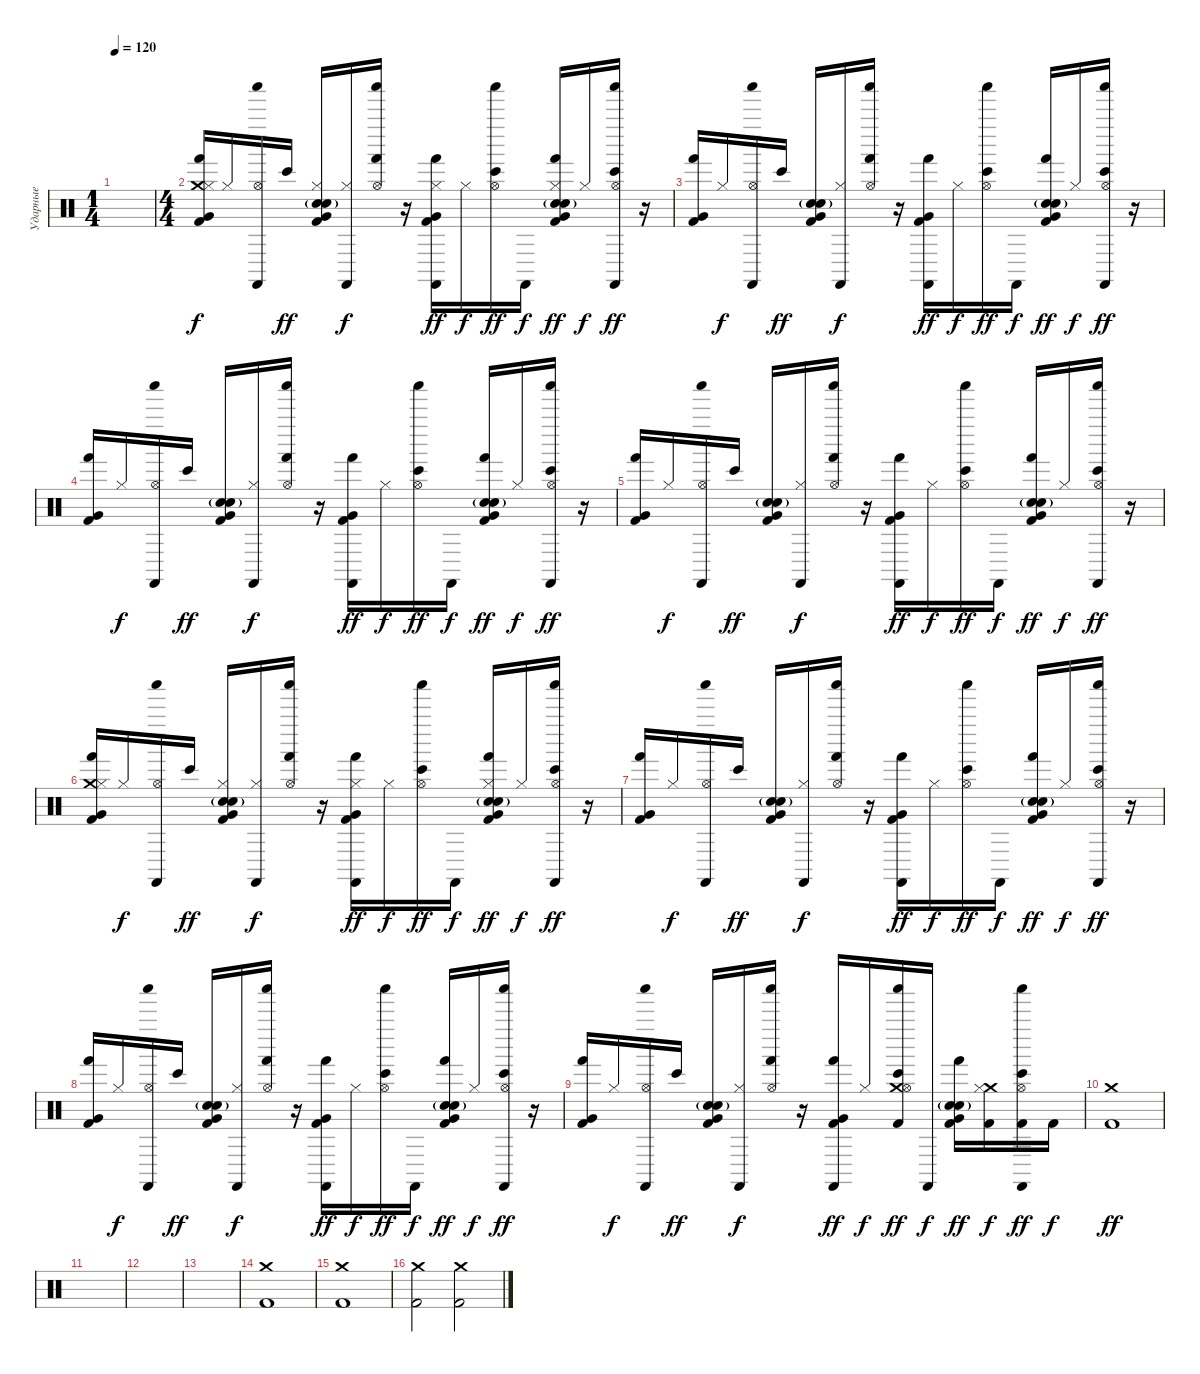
\track ("Ударные" "Ударные") {instrument percussion}
\staff {score}
\articulation defaults
\ts (1 4)
\tempo 120
\clef neutral
\ks c
|
\ts (4 4)
("Kick (hit) 2" "Crash medium (hit)" "Hi-Hat (closed)" "Very Low Tom (hit)" "Hand (hit)").16 "Hi-Hat (closed)".16{dy f} ("Castanets (hit)" "Shaker (hit)" "Hi-Hat (open)").16 "Bongo High (hit)".16{dy ff} ("Kick (hit) 2" "Hand Clap (hit)"{g} "Snare (hit) 2" "Hi-Hat (closed)" "Very Low Tom (hit)").16 ("Castanets (hit)" "Hi-Hat (closed)").16{dy f} ("Shaker (hit)" "Hi-Hat (open)" "Hand (hit)").16 r.16 ("Kick (hit) 2" "Castanets (hit)" "Hi-Hat (closed)" "Very Low Tom (hit)" "Hand (hit)").16{dy ff} "Hi-Hat (closed)".16{dy f} ("Shaker (hit)" "Hi-Hat (open)" "Bongo High (hit)").16{dy ff} "Castanets (hit)".16{dy f} ("Kick (hit) 2" "Hand Clap (hit)"{g} "Snare (hit) 2" "Hi-Hat (closed)" "Very Low Tom (hit)" "Hand (hit)").16{dy ff} "Hi-Hat (closed)".16{dy f} ("Castanets (hit)" "Shaker (hit)" "Hi-Hat (open)" "Bongo High (hit)").16{dy ff} r.16 |
("Kick (hit) 2" "Very Low Tom (hit)" "Hand (hit)").16 "Hi-Hat (closed)".16{dy f} ("Castanets (hit)" "Shaker (hit)" "Hi-Hat (open)").16 "Bongo High (hit)".16{dy ff} ("Kick (hit) 2" "Hand Clap (hit)"{g} "Snare (hit) 2" "Very Low Tom (hit)").16 ("Castanets (hit)" "Hi-Hat (closed)").16{dy f} ("Shaker (hit)" "Hi-Hat (open)" "Hand (hit)").16 r.16 ("Kick (hit) 2" "Castanets (hit)" "Very Low Tom (hit)" "Hand (hit)").16{dy ff} "Hi-Hat (closed)".16{dy f} ("Shaker (hit)" "Hi-Hat (open)" "Bongo High (hit)").16{dy ff} "Castanets (hit)".16{dy f} ("Kick (hit) 2" "Hand Clap (hit)"{g} "Snare (hit) 2" "Very Low Tom (hit)" "Hand (hit)").16{dy ff} "Hi-Hat (closed)".16{dy f} ("Castanets (hit)" "Shaker (hit)" "Hi-Hat (open)" "Bongo High (hit)").16{dy ff} r.16 |
("Kick (hit) 2" "Very Low Tom (hit)" "Hand (hit)").16 "Hi-Hat (closed)".16{dy f} ("Castanets (hit)" "Shaker (hit)" "Hi-Hat (open)").16 "Bongo High (hit)".16{dy ff} ("Kick (hit) 2" "Hand Clap (hit)"{g} "Snare (hit) 2" "Very Low Tom (hit)").16 ("Castanets (hit)" "Hi-Hat (closed)").16{dy f} ("Shaker (hit)" "Hi-Hat (open)" "Hand (hit)").16 r.16 ("Kick (hit) 2" "Castanets (hit)" "Very Low Tom (hit)" "Hand (hit)").16{dy ff} "Hi-Hat (closed)".16{dy f} ("Shaker (hit)" "Hi-Hat (open)" "Bongo High (hit)").16{dy ff} "Castanets (hit)".16{dy f} ("Kick (hit) 2" "Hand Clap (hit)"{g} "Snare (hit) 2" "Very Low Tom (hit)" "Hand (hit)").16{dy ff} "Hi-Hat (closed)".16{dy f} ("Castanets (hit)" "Shaker (hit)" "Hi-Hat (open)" "Bongo High (hit)").16{dy ff} r.16 |
("Kick (hit) 2" "Very Low Tom (hit)" "Hand (hit)").16 "Hi-Hat (closed)".16{dy f} ("Castanets (hit)" "Shaker (hit)" "Hi-Hat (open)").16 "Bongo High (hit)".16{dy ff} ("Kick (hit) 2" "Hand Clap (hit)"{g} "Snare (hit) 2" "Very Low Tom (hit)").16 ("Castanets (hit)" "Hi-Hat (closed)").16{dy f} ("Shaker (hit)" "Hi-Hat (open)" "Hand (hit)").16 r.16 ("Kick (hit) 2" "Castanets (hit)" "Very Low Tom (hit)" "Hand (hit)").16{dy ff} "Hi-Hat (closed)".16{dy f} ("Shaker (hit)" "Hi-Hat (open)" "Bongo High (hit)").16{dy ff} "Castanets (hit)".16{dy f} ("Kick (hit) 2" "Hand Clap (hit)"{g} "Snare (hit) 2" "Very Low Tom (hit)" "Hand (hit)").16{dy ff} "Hi-Hat (closed)".16{dy f} ("Castanets (hit)" "Shaker (hit)" "Hi-Hat (open)" "Bongo High (hit)").16{dy ff} r.16 |
("Kick (hit) 2" "Crash medium (hit)" "Hi-Hat (closed)" "Very Low Tom (hit)" "Hand (hit)").16 "Hi-Hat (closed)".16{dy f} ("Castanets (hit)" "Shaker (hit)" "Hi-Hat (open)").16 "Bongo High (hit)".16{dy ff} ("Kick (hit) 2" "Hand Clap (hit)"{g} "Snare (hit) 2" "Hi-Hat (closed)" "Very Low Tom (hit)").16 ("Castanets (hit)" "Hi-Hat (closed)").16{dy f} ("Shaker (hit)" "Hi-Hat (open)" "Hand (hit)").16 r.16 ("Kick (hit) 2" "Castanets (hit)" "Hi-Hat (closed)" "Very Low Tom (hit)" "Hand (hit)").16{dy ff} "Hi-Hat (closed)".16{dy f} ("Shaker (hit)" "Hi-Hat (open)" "Bongo High (hit)").16{dy ff} "Castanets (hit)".16{dy f} ("Kick (hit) 2" "Hand Clap (hit)"{g} "Snare (hit) 2" "Hi-Hat (closed)" "Very Low Tom (hit)" "Hand (hit)").16{dy ff} "Hi-Hat (closed)".16{dy f} ("Castanets (hit)" "Shaker (hit)" "Hi-Hat (open)" "Bongo High (hit)").16{dy ff} r.16 |
("Kick (hit) 2" "Very Low Tom (hit)" "Hand (hit)").16 "Hi-Hat (closed)".16{dy f} ("Castanets (hit)" "Shaker (hit)" "Hi-Hat (open)").16 "Bongo High (hit)".16{dy ff} ("Kick (hit) 2" "Hand Clap (hit)"{g} "Snare (hit) 2" "Very Low Tom (hit)").16 ("Castanets (hit)" "Hi-Hat (closed)").16{dy f} ("Shaker (hit)" "Hi-Hat (open)" "Hand (hit)").16 r.16 ("Kick (hit) 2" "Castanets (hit)" "Very Low Tom (hit)" "Hand (hit)").16{dy ff} "Hi-Hat (closed)".16{dy f} ("Shaker (hit)" "Hi-Hat (open)" "Bongo High (hit)").16{dy ff} "Castanets (hit)".16{dy f} ("Kick (hit) 2" "Hand Clap (hit)"{g} "Snare (hit) 2" "Very Low Tom (hit)" "Hand (hit)").16{dy ff} "Hi-Hat (closed)".16{dy f} ("Castanets (hit)" "Shaker (hit)" "Hi-Hat (open)" "Bongo High (hit)").16{dy ff} r.16 |
("Kick (hit) 2" "Very Low Tom (hit)" "Hand (hit)").16 "Hi-Hat (closed)".16{dy f} ("Castanets (hit)" "Shaker (hit)" "Hi-Hat (open)").16 "Bongo High (hit)".16{dy ff} ("Kick (hit) 2" "Hand Clap (hit)"{g} "Snare (hit) 2" "Very Low Tom (hit)").16 ("Castanets (hit)" "Hi-Hat (closed)").16{dy f} ("Shaker (hit)" "Hi-Hat (open)" "Hand (hit)").16 r.16 ("Kick (hit) 2" "Castanets (hit)" "Very Low Tom (hit)" "Hand (hit)").16{dy ff} "Hi-Hat (closed)".16{dy f} ("Shaker (hit)" "Hi-Hat (open)" "Bongo High (hit)").16{dy ff} "Castanets (hit)".16{dy f} ("Kick (hit) 2" "Hand Clap (hit)"{g} "Snare (hit) 2" "Very Low Tom (hit)" "Hand (hit)").16{dy ff} "Hi-Hat (closed)".16{dy f} ("Castanets (hit)" "Shaker (hit)" "Hi-Hat (open)" "Bongo High (hit)").16{dy ff} r.16 |
("Kick (hit) 2" "Very Low Tom (hit)" "Hand (hit)").16 "Hi-Hat (closed)".16{dy f} ("Castanets (hit)" "Shaker (hit)" "Hi-Hat (open)").16 "Bongo High (hit)".16{dy ff} ("Kick (hit) 2" "Hand Clap (hit)"{g} "Snare (hit) 2" "Very Low Tom (hit)").16 ("Castanets (hit)" "Hi-Hat (closed)").16{dy f} ("Shaker (hit)" "Hi-Hat (open)" "Hand (hit)").16 r.16 ("Kick (hit) 2" "Castanets (hit)" "Very Low Tom (hit)" "Hand (hit)").16{dy ff} "Hi-Hat (closed)".16{dy f} ("Kick (hit) 2" "Crash medium (hit)" "Shaker (hit)" "Hi-Hat (open)" "Bongo High (hit)").16{dy ff} "Castanets (hit)".16{dy f} ("Kick (hit) 2" "Hand Clap (hit)"{g} "Snare (hit) 2" "Very Low Tom (hit)" "Hand (hit)").16{dy ff} ("Kick (hit) 2" "Crash medium (hit)" "Hi-Hat (closed)").16{dy f} ("Kick (hit) 2" "Castanets (hit)" "Shaker (hit)" "Hi-Hat (open)" "Bongo High (hit)").16{dy ff} "Kick (hit) 2".16{dy f} |
("Kick (hit) 2" "Crash medium (hit)").1{dy ff} |
|
|
|
("Kick (hit) 2" "Crash medium (hit)").1 |
("Kick (hit) 2" "Crash medium (hit)").1 |
("Kick (hit) 2" "Crash medium (hit)").2 ("Kick (hit) 2" "Crash medium (hit)").2
